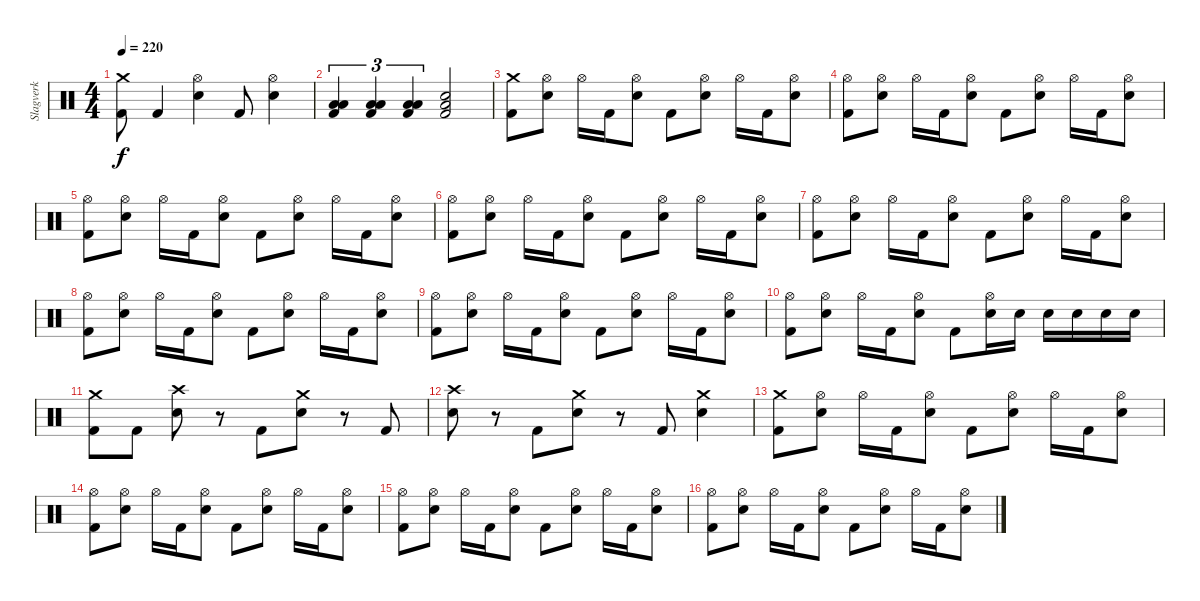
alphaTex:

\track ("Slagverk" "Slagverk") {instrument percussion}
\staff {score}
\articulation defaults
\ts (4 4)
\tempo 220
\clef neutral
\ks c
("Crash medium (hit)" "Kick (hit) 2").8{dy f} "Kick (hit) 2".4 ("Electric Snare (hit)" "Hi-Hat (open)").4 "Kick (hit) 2".8 ("Electric Snare (hit)" "Hi-Hat (open)").4 |
("Low Tom (hit)" "Low Floor Tom (hit)" "Kick (hit) 2").4{tu (3 2)} ("Low Tom (hit)" "Low Floor Tom (hit)" "Kick (hit) 2").4{tu (3 2)} ("Low Tom (hit)" "Low Floor Tom (hit)" "Kick (hit) 2").4{tu (3 2)} ("Low Tom (hit)" "Electric Snare (hit)" "Kick (hit) 2").2 |
("Crash medium (hit)" "Kick (hit) 2").8 ("Electric Snare (hit)" "Hi-Hat (open)").8 "Hi-Hat (open)".16 "Kick (hit) 2".16 ("Electric Snare (hit)" "Hi-Hat (open)").8 "Kick (hit) 2".8 ("Electric Snare (hit)" "Hi-Hat (open)").8 "Hi-Hat (open)".16 "Kick (hit) 2".16 ("Electric Snare (hit)" "Hi-Hat (open)").8 |
("Hi-Hat (open)" "Kick (hit) 2").8 ("Electric Snare (hit)" "Hi-Hat (open)").8 "Hi-Hat (open)".16 "Kick (hit) 2".16 ("Electric Snare (hit)" "Hi-Hat (open)").8 "Kick (hit) 2".8 ("Electric Snare (hit)" "Hi-Hat (open)").8 "Hi-Hat (open)".16 "Kick (hit) 2".16 ("Electric Snare (hit)" "Hi-Hat (open)").8 |
("Hi-Hat (open)" "Kick (hit) 2").8 ("Electric Snare (hit)" "Hi-Hat (open)").8 "Hi-Hat (open)".16 "Kick (hit) 2".16 ("Electric Snare (hit)" "Hi-Hat (open)").8 "Kick (hit) 2".8 ("Electric Snare (hit)" "Hi-Hat (open)").8 "Hi-Hat (open)".16 "Kick (hit) 2".16 ("Electric Snare (hit)" "Hi-Hat (open)").8 |
("Hi-Hat (open)" "Kick (hit) 2").8 ("Electric Snare (hit)" "Hi-Hat (open)").8 "Hi-Hat (open)".16 "Kick (hit) 2".16 ("Electric Snare (hit)" "Hi-Hat (open)").8 "Kick (hit) 2".8 ("Electric Snare (hit)" "Hi-Hat (open)").8 "Hi-Hat (open)".16 "Kick (hit) 2".16 ("Electric Snare (hit)" "Hi-Hat (open)").8 |
("Hi-Hat (open)" "Kick (hit) 2").8 ("Electric Snare (hit)" "Hi-Hat (open)").8 "Hi-Hat (open)".16 "Kick (hit) 2".16 ("Electric Snare (hit)" "Hi-Hat (open)").8 "Kick (hit) 2".8 ("Electric Snare (hit)" "Hi-Hat (open)").8 "Hi-Hat (open)".16 "Kick (hit) 2".16 ("Electric Snare (hit)" "Hi-Hat (open)").8 |
("Hi-Hat (open)" "Kick (hit) 2").8 ("Electric Snare (hit)" "Hi-Hat (open)").8 "Hi-Hat (open)".16 "Kick (hit) 2".16 ("Electric Snare (hit)" "Hi-Hat (open)").8 "Kick (hit) 2".8 ("Electric Snare (hit)" "Hi-Hat (open)").8 "Hi-Hat (open)".16 "Kick (hit) 2".16 ("Electric Snare (hit)" "Hi-Hat (open)").8 |
("Hi-Hat (open)" "Kick (hit) 2").8 ("Electric Snare (hit)" "Hi-Hat (open)").8 "Hi-Hat (open)".16 "Kick (hit) 2".16 ("Electric Snare (hit)" "Hi-Hat (open)").8 "Kick (hit) 2".8 ("Electric Snare (hit)" "Hi-Hat (open)").8 "Hi-Hat (open)".16 "Kick (hit) 2".16 ("Electric Snare (hit)" "Hi-Hat (open)").8 |
("Hi-Hat (open)" "Kick (hit) 2").8 ("Electric Snare (hit)" "Hi-Hat (open)").8 "Hi-Hat (open)".16 "Kick (hit) 2".16 ("Electric Snare (hit)" "Hi-Hat (open)").8 "Kick (hit) 2".8 ("Electric Snare (hit)" "Hi-Hat (open)").16 "Electric Snare (hit)".16 "Electric Snare (hit)".16 "Electric Snare (hit)".16 "Electric Snare (hit)".16 "Electric Snare (hit)".16 |
("Crash medium (hit)" "Kick (hit) 2").8 "Kick (hit) 2".8 ("Crash high (hit)" "Electric Snare (hit)").8 r.8 "Kick (hit) 2".8 ("Crash medium (hit)" "Electric Snare (hit)").8 r.8 "Kick (hit) 2".8 |
("Crash high (hit)" "Electric Snare (hit)").8 r.8 "Kick (hit) 2".8 ("Crash medium (hit)" "Electric Snare (hit)").8 r.8 "Kick (hit) 2".8 ("Crash medium (hit)" "Electric Snare (hit)").4 |
("Crash medium (hit)" "Kick (hit) 2").8 ("Electric Snare (hit)" "Hi-Hat (open)").8 "Hi-Hat (open)".16 "Kick (hit) 2".16 ("Electric Snare (hit)" "Hi-Hat (open)").8 "Kick (hit) 2".8 ("Electric Snare (hit)" "Hi-Hat (open)").8 "Hi-Hat (open)".16 "Kick (hit) 2".16 ("Electric Snare (hit)" "Hi-Hat (open)").8 |
("Hi-Hat (open)" "Kick (hit) 2").8 ("Electric Snare (hit)" "Hi-Hat (open)").8 "Hi-Hat (open)".16 "Kick (hit) 2".16 ("Electric Snare (hit)" "Hi-Hat (open)").8 "Kick (hit) 2".8 ("Electric Snare (hit)" "Hi-Hat (open)").8 "Hi-Hat (open)".16 "Kick (hit) 2".16 ("Electric Snare (hit)" "Hi-Hat (open)").8 |
("Hi-Hat (open)" "Kick (hit) 2").8 ("Electric Snare (hit)" "Hi-Hat (open)").8 "Hi-Hat (open)".16 "Kick (hit) 2".16 ("Electric Snare (hit)" "Hi-Hat (open)").8 "Kick (hit) 2".8 ("Electric Snare (hit)" "Hi-Hat (open)").8 "Hi-Hat (open)".16 "Kick (hit) 2".16 ("Electric Snare (hit)" "Hi-Hat (open)").8 |
("Hi-Hat (open)" "Kick (hit) 2").8 ("Electric Snare (hit)" "Hi-Hat (open)").8 "Hi-Hat (open)".16 "Kick (hit) 2".16 ("Electric Snare (hit)" "Hi-Hat (open)").8 "Kick (hit) 2".8 ("Electric Snare (hit)" "Hi-Hat (open)").8 "Hi-Hat (open)".16 "Kick (hit) 2".16 ("Electric Snare (hit)" "Hi-Hat (open)").8
